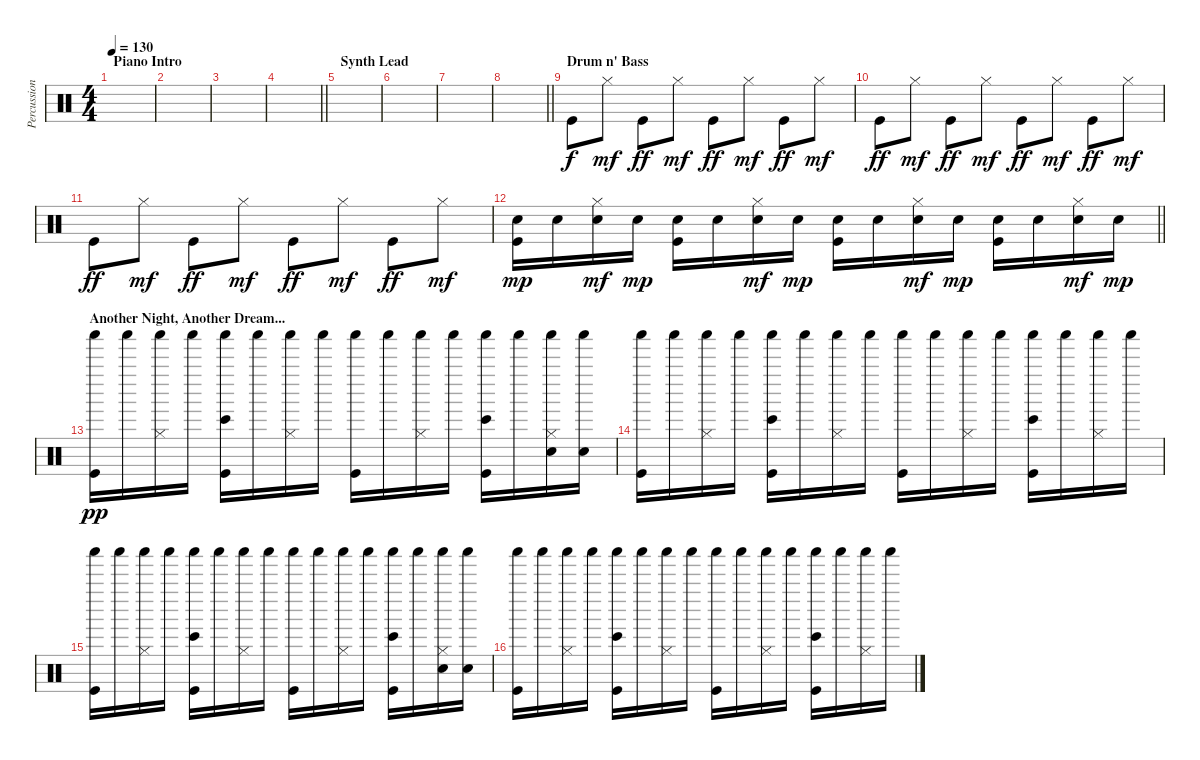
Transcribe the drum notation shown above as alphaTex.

\track ("Percussion" "Percussion") {instrument percussion}
\staff {score}
\articulation defaults
\ts (4 4)
\section ("" "Piano Intro")
\tempo 130
\clef neutral
\ks c
|
|
|
\barLineRight lightlight
|
\section ("" "Synth Lead")
|
|
|
\barLineRight lightlight
|
\section ("" "Drum n' Bass")
"Kick (hit)".8 "Hi-Hat (closed)".8{dy mf} "Kick (hit)".8{dy ff} "Hi-Hat (closed)".8{dy mf} "Kick (hit)".8{dy ff} "Hi-Hat (closed)".8{dy mf} "Kick (hit)".8{dy ff} "Hi-Hat (closed)".8{dy mf} |
"Kick (hit)".8{dy ff} "Hi-Hat (closed)".8{dy mf} "Kick (hit)".8{dy ff} "Hi-Hat (closed)".8{dy mf} "Kick (hit)".8{dy ff} "Hi-Hat (closed)".8{dy mf} "Kick (hit)".8{dy ff} "Hi-Hat (closed)".8{dy mf} |
"Kick (hit)".8{dy ff} "Hi-Hat (closed)".8{dy mf} "Kick (hit)".8{dy ff} "Hi-Hat (closed)".8{dy mf} "Kick (hit)".8{dy ff} "Hi-Hat (closed)".8{dy mf} "Kick (hit)".8{dy ff} "Hi-Hat (closed)".8{dy mf} |
\barLineRight lightlight
("Kick (hit)" "Electric Snare (hit)").16{dy mp} "Electric Snare (hit)".16 ("Electric Snare (hit)" "Hi-Hat (closed)").16{dy mf} "Electric Snare (hit)".16{dy mp} ("Kick (hit)" "Electric Snare (hit)").16 "Electric Snare (hit)".16 ("Electric Snare (hit)" "Hi-Hat (closed)").16{dy mf} "Electric Snare (hit)".16{dy mp} ("Kick (hit)" "Electric Snare (hit)").16 "Electric Snare (hit)".16 ("Electric Snare (hit)" "Hi-Hat (closed)").16{dy mf} "Electric Snare (hit)".16{dy mp} ("Kick (hit)" "Electric Snare (hit)").16 "Electric Snare (hit)".16 ("Electric Snare (hit)" "Hi-Hat (closed)").16{dy mf} "Electric Snare (hit)".16{dy mp} |
\section ("" "Another Night, Another Dream...")
("Kick (hit)" "Shaker (hit)").16{dy pp} "Shaker (hit)".16 ("Hi-Hat (closed)" "Shaker (hit)").16 "Shaker (hit)".16 ("Kick (hit)" "Bongo High (hit)" "Shaker (hit)").16 "Shaker (hit)".16 ("Hi-Hat (closed)" "Shaker (hit)").16 "Shaker (hit)".16 ("Kick (hit)" "Shaker (hit)").16 "Shaker (hit)".16 ("Hi-Hat (closed)" "Shaker (hit)").16 "Shaker (hit)".16 ("Kick (hit)" "Bongo High (hit)" "Shaker (hit)").16 "Shaker (hit)".16 ("Electric Snare (hit)" "Hi-Hat (closed)" "Shaker (hit)").16 ("Electric Snare (hit)" "Shaker (hit)").16 |
("Kick (hit)" "Shaker (hit)").16 "Shaker (hit)".16 ("Hi-Hat (closed)" "Shaker (hit)").16 "Shaker (hit)".16 ("Kick (hit)" "Bongo High (hit)" "Shaker (hit)").16 "Shaker (hit)".16 ("Hi-Hat (closed)" "Shaker (hit)").16 "Shaker (hit)".16 ("Kick (hit)" "Shaker (hit)").16 "Shaker (hit)".16 ("Hi-Hat (closed)" "Shaker (hit)").16 "Shaker (hit)".16 ("Kick (hit)" "Bongo High (hit)" "Shaker (hit)").16 "Shaker (hit)".16 ("Hi-Hat (closed)" "Shaker (hit)").16 "Shaker (hit)".16 |
("Kick (hit)" "Shaker (hit)").16 "Shaker (hit)".16 ("Hi-Hat (closed)" "Shaker (hit)").16 "Shaker (hit)".16 ("Kick (hit)" "Bongo High (hit)" "Shaker (hit)").16 "Shaker (hit)".16 ("Hi-Hat (closed)" "Shaker (hit)").16 "Shaker (hit)".16 ("Kick (hit)" "Shaker (hit)").16 "Shaker (hit)".16 ("Hi-Hat (closed)" "Shaker (hit)").16 "Shaker (hit)".16 ("Kick (hit)" "Bongo High (hit)" "Shaker (hit)").16 "Shaker (hit)".16 ("Electric Snare (hit)" "Hi-Hat (closed)" "Shaker (hit)").16 ("Electric Snare (hit)" "Shaker (hit)").16 |
("Kick (hit)" "Shaker (hit)").16 "Shaker (hit)".16 ("Hi-Hat (closed)" "Shaker (hit)").16 "Shaker (hit)".16 ("Kick (hit)" "Bongo High (hit)" "Shaker (hit)").16 "Shaker (hit)".16 ("Hi-Hat (closed)" "Shaker (hit)").16 "Shaker (hit)".16 ("Kick (hit)" "Shaker (hit)").16 "Shaker (hit)".16 ("Hi-Hat (closed)" "Shaker (hit)").16 "Shaker (hit)".16 ("Kick (hit)" "Bongo High (hit)" "Shaker (hit)").16 "Shaker (hit)".16 ("Hi-Hat (closed)" "Shaker (hit)").16 "Shaker (hit)".16
